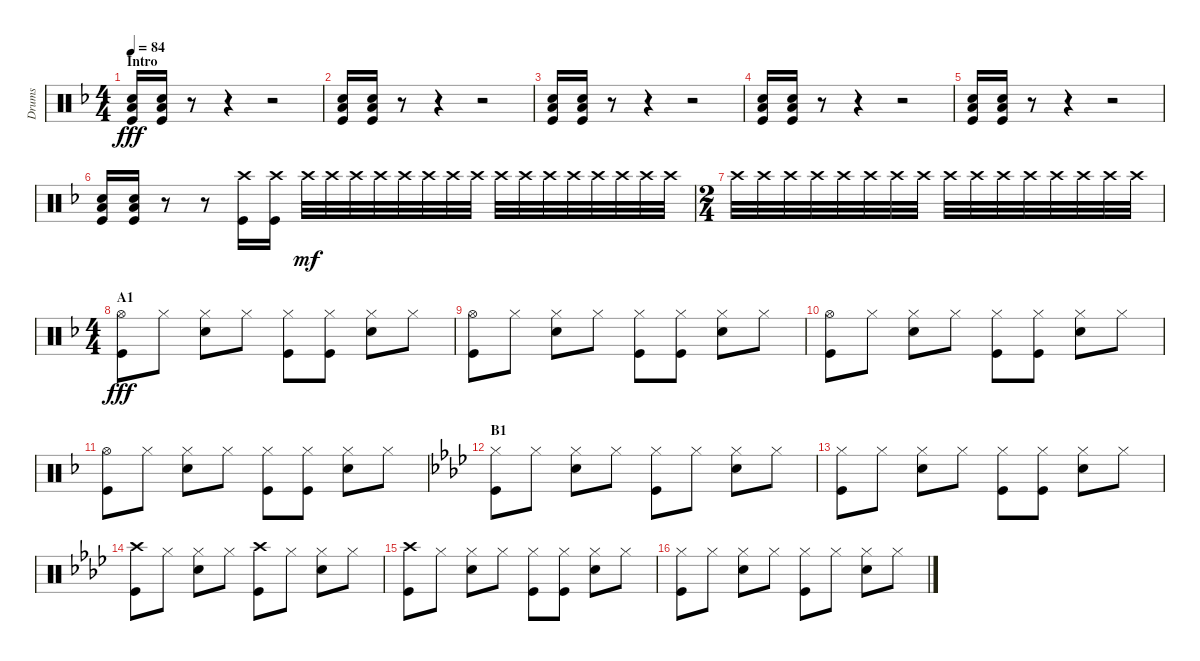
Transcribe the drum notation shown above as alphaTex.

\track ("Drums" "Drums") {instrument percussion}
\staff {score}
\articulation defaults
\ts (4 4)
\section ("" "Intro")
\tempo 84
\clef neutral
\ks f
("Low Floor Tom (hit)" "Snare (hit) 2" "Kick (hit)").16{dy fff} ("Low Floor Tom (hit)" "Snare (hit) 2" "Kick (hit)").16 r.8 r.4 r.2 |
("Low Floor Tom (hit)" "Snare (hit) 2" "Kick (hit)").16 ("Low Floor Tom (hit)" "Snare (hit) 2" "Kick (hit)").16 r.8 r.4 r.2 |
("Low Floor Tom (hit)" "Snare (hit) 2" "Kick (hit)").16 ("Low Floor Tom (hit)" "Snare (hit) 2" "Kick (hit)").16 r.8 r.4 r.2 |
("Low Floor Tom (hit)" "Snare (hit) 2" "Kick (hit)").16 ("Low Floor Tom (hit)" "Snare (hit) 2" "Kick (hit)").16 r.8 r.4 r.2 |
("Low Floor Tom (hit)" "Snare (hit) 2" "Kick (hit)").16 ("Low Floor Tom (hit)" "Snare (hit) 2" "Kick (hit)").16 r.8 r.4 r.2 |
("Low Floor Tom (hit)" "Snare (hit) 2" "Kick (hit)").16 ("Low Floor Tom (hit)" "Snare (hit) 2" "Kick (hit)").16 r.8 r.8 ("Crash high (hit)" "Kick (hit)").16 ("Crash high (hit)" "Kick (hit)").16 "Crash high (hit)".32{dy mf} "Crash high (hit)".32 "Crash high (hit)".32 "Crash high (hit)".32 "Crash high (hit)".32 "Crash high (hit)".32 "Crash high (hit)".32 "Crash high (hit)".32 "Crash high (hit)".32 "Crash high (hit)".32 "Crash high (hit)".32 "Crash high (hit)".32 "Crash high (hit)".32 "Crash high (hit)".32 "Crash high (hit)".32 "Crash high (hit)".32 |
\ts (2 4)
"Crash high (hit)".32 "Crash high (hit)".32 "Crash high (hit)".32 "Crash high (hit)".32 "Crash high (hit)".32 "Crash high (hit)".32 "Crash high (hit)".32 "Crash high (hit)".32 "Crash high (hit)".32 "Crash high (hit)".32 "Crash high (hit)".32 "Crash high (hit)".32 "Crash high (hit)".32 "Crash high (hit)".32 "Crash high (hit)".32 "Crash high (hit)".32 |
\ts (4 4)
\section ("" "A1")
("Hi-Hat (open)" "Kick (hit)").8{dy fff} "Hi-Hat (closed)".8 ("Hi-Hat (closed)" "Snare (hit) 2").8 "Hi-Hat (closed)".8 ("Hi-Hat (closed)" "Kick (hit)").8 ("Hi-Hat (closed)" "Kick (hit)").8 ("Hi-Hat (closed)" "Snare (hit) 2").8 "Hi-Hat (closed)".8 |
("Hi-Hat (open)" "Kick (hit)").8 "Hi-Hat (closed)".8 ("Hi-Hat (closed)" "Snare (hit) 2").8 "Hi-Hat (closed)".8 ("Hi-Hat (closed)" "Kick (hit)").8 ("Hi-Hat (closed)" "Kick (hit)").8 ("Hi-Hat (closed)" "Snare (hit) 2").8 "Hi-Hat (closed)".8 |
("Hi-Hat (open)" "Kick (hit)").8 "Hi-Hat (closed)".8 ("Hi-Hat (closed)" "Snare (hit) 2").8 "Hi-Hat (closed)".8 ("Hi-Hat (closed)" "Kick (hit)").8 ("Hi-Hat (closed)" "Kick (hit)").8 ("Hi-Hat (closed)" "Snare (hit) 2").8 "Hi-Hat (closed)".8 |
("Hi-Hat (open)" "Kick (hit)").8 "Hi-Hat (closed)".8 ("Hi-Hat (closed)" "Snare (hit) 2").8 "Hi-Hat (closed)".8 ("Hi-Hat (closed)" "Kick (hit)").8 ("Hi-Hat (closed)" "Kick (hit)").8 ("Hi-Hat (closed)" "Snare (hit) 2").8 "Hi-Hat (closed)".8 |
\section ("" "B1")
\ks ab
("Hi-Hat (closed)" "Kick (hit)").8 "Hi-Hat (closed)".8 ("Hi-Hat (closed)" "Snare (hit) 2").8 "Hi-Hat (closed)".8 ("Hi-Hat (closed)" "Kick (hit)").8 "Hi-Hat (closed)".8 ("Hi-Hat (closed)" "Snare (hit) 2").8 "Hi-Hat (closed)".8 |
("Hi-Hat (closed)" "Kick (hit)").8 "Hi-Hat (closed)".8 ("Hi-Hat (closed)" "Snare (hit) 2").8 "Hi-Hat (closed)".8 ("Hi-Hat (closed)" "Kick (hit)").8 ("Hi-Hat (closed)" "Kick (hit)").8 ("Hi-Hat (closed)" "Snare (hit) 2").8 "Hi-Hat (closed)".8 |
("Crash high (hit)" "Kick (hit)").8 "Hi-Hat (closed)".8 ("Hi-Hat (closed)" "Snare (hit) 2").8 "Hi-Hat (closed)".8 ("Crash high (hit)" "Kick (hit)").8 "Hi-Hat (closed)".8 ("Hi-Hat (closed)" "Snare (hit) 2").8 "Hi-Hat (closed)".8 |
("Crash high (hit)" "Kick (hit)").8 "Hi-Hat (closed)".8 ("Hi-Hat (closed)" "Snare (hit) 2").8 "Hi-Hat (closed)".8 ("Hi-Hat (closed)" "Kick (hit)").8 ("Hi-Hat (closed)" "Kick (hit)").8 ("Hi-Hat (closed)" "Snare (hit) 2").8 "Hi-Hat (closed)".8 |
("Hi-Hat (closed)" "Kick (hit)").8 "Hi-Hat (closed)".8 ("Hi-Hat (closed)" "Snare (hit) 2").8 "Hi-Hat (closed)".8 ("Hi-Hat (closed)" "Kick (hit)").8 "Hi-Hat (closed)".8 ("Hi-Hat (closed)" "Snare (hit) 2").8 "Hi-Hat (closed)".8
